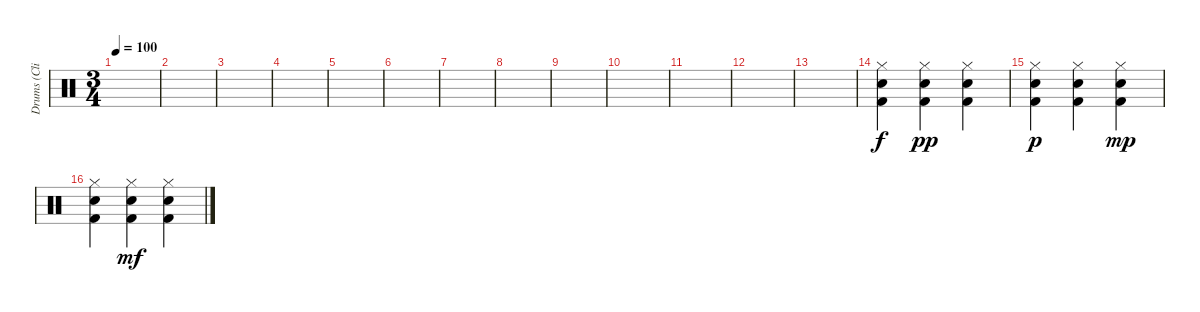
\track ("Drums (Clive Bunker)" "Drums (Cli") {instrument percussion}
\staff {score}
\articulation defaults
\ts (3 4)
\tempo 100
\clef neutral
\ks c
|
|
|
|
|
|
|
|
|
|
|
|
|
("Hi-Hat (closed)" "Snare (hit) 2" "Kick (hit) 2").4 ("Hi-Hat (closed)" "Snare (hit) 2" "Kick (hit) 2").4{dy pp} ("Hi-Hat (closed)" "Snare (hit) 2" "Kick (hit) 2").4 |
("Hi-Hat (closed)" "Snare (hit) 2" "Kick (hit) 2").4{dy p} ("Hi-Hat (closed)" "Snare (hit) 2" "Kick (hit) 2").4 ("Hi-Hat (closed)" "Snare (hit) 2" "Kick (hit) 2").4{dy mp} |
("Hi-Hat (closed)" "Snare (hit) 2" "Kick (hit) 2").4 ("Hi-Hat (closed)" "Snare (hit) 2" "Kick (hit) 2").4{dy mf} ("Hi-Hat (closed)" "Snare (hit) 2" "Kick (hit) 2").4
